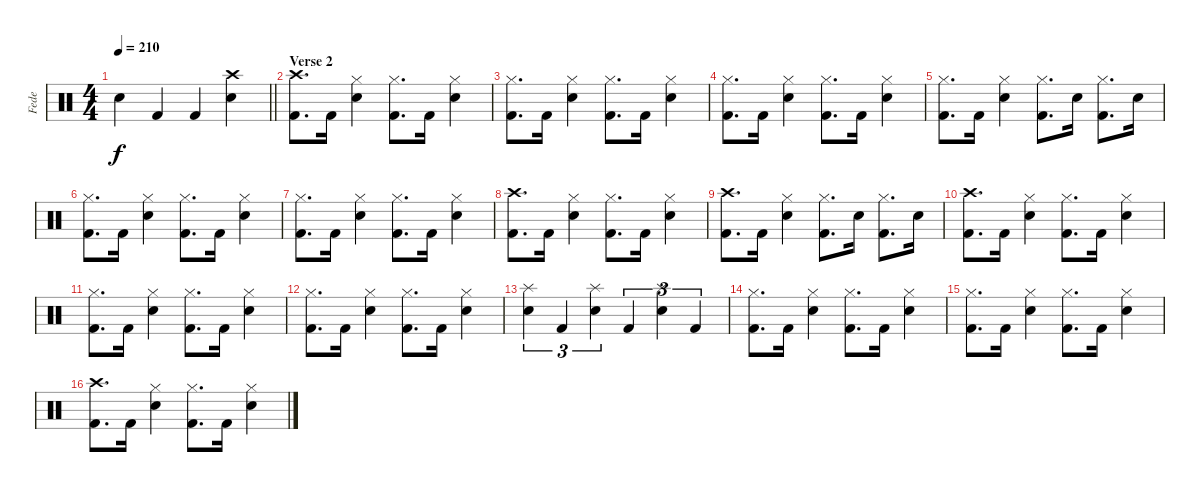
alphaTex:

\track ("Fede" "Fede") {instrument percussion}
\staff {score}
\articulation defaults
\ts (4 4)
\tempo 210
\clef neutral
\barLineRight lightlight
\ks c "Snare (hit) 2".4{dy f} "Kick (hit) 2".4 "Kick (hit) 2".4
("Crash high (hit)" "Snare (hit) 2").4 |
\section ("" "Verse 2")
("Crash high (hit)" "Kick (hit) 2").8{d} "Kick (hit) 2".16 ("Hi-Hat (closed)" "Snare (hit) 2").4 ("Hi-Hat (closed)" "Kick (hit) 2").8{d} "Kick (hit) 2".16 ("Hi-Hat (closed)" "Snare (hit) 2").4 |
("Hi-Hat (closed)" "Kick (hit) 2").8{d} "Kick (hit) 2".16 ("Hi-Hat (closed)" "Snare (hit) 2").4 ("Hi-Hat (closed)" "Kick (hit) 2").8{d} "Kick (hit) 2".16 ("Hi-Hat (closed)" "Snare (hit) 2").4 |
("Hi-Hat (closed)" "Kick (hit) 2").8{d} "Kick (hit) 2".16 ("Hi-Hat (closed)" "Snare (hit) 2").4 ("Hi-Hat (closed)" "Kick (hit) 2").8{d} "Kick (hit) 2".16 ("Hi-Hat (closed)" "Snare (hit) 2").4 |
("Hi-Hat (closed)" "Kick (hit) 2").8{d} "Kick (hit) 2".16 ("Hi-Hat (closed)" "Snare (hit) 2").4 ("Hi-Hat (closed)" "Kick (hit) 2").8{d} "Snare (hit) 2".16 ("Hi-Hat (closed)" "Kick (hit) 2").8{d} "Snare (hit) 2".16 |
("Hi-Hat (closed)" "Kick (hit) 2").8{d} "Kick (hit) 2".16 ("Hi-Hat (closed)" "Snare (hit) 2").4 ("Hi-Hat (closed)" "Kick (hit) 2").8{d} "Kick (hit) 2".16 ("Hi-Hat (closed)" "Snare (hit) 2").4 |
("Hi-Hat (closed)" "Kick (hit) 2").8{d} "Kick (hit) 2".16 ("Hi-Hat (closed)" "Snare (hit) 2").4 ("Hi-Hat (closed)" "Kick (hit) 2").8{d} "Kick (hit) 2".16 ("Hi-Hat (closed)" "Snare (hit) 2").4 |
("Crash high (hit)" "Kick (hit) 2").8{d} "Kick (hit) 2".16 ("Hi-Hat (closed)" "Snare (hit) 2").4 ("Hi-Hat (closed)" "Kick (hit) 2").8{d} "Kick (hit) 2".16 ("Hi-Hat (closed)" "Snare (hit) 2").4 |
("Crash high (hit)" "Kick (hit) 2").8{d} "Kick (hit) 2".16 ("Hi-Hat (closed)" "Snare (hit) 2").4 ("Hi-Hat (closed)" "Kick (hit) 2").8{d} "Snare (hit) 2".16 ("Hi-Hat (closed)" "Kick (hit) 2").8{d} "Snare (hit) 2".16 |
("Crash high (hit)" "Kick (hit) 2").8{d} "Kick (hit) 2".16 ("Hi-Hat (closed)" "Snare (hit) 2").4 ("Hi-Hat (closed)" "Kick (hit) 2").8{d} "Kick (hit) 2".16 ("Hi-Hat (closed)" "Snare (hit) 2").4 |
("Hi-Hat (closed)" "Kick (hit) 2").8{d} "Kick (hit) 2".16 ("Hi-Hat (closed)" "Snare (hit) 2").4 ("Hi-Hat (closed)" "Kick (hit) 2").8{d} "Kick (hit) 2".16 ("Hi-Hat (closed)" "Snare (hit) 2").4 |
("Hi-Hat (closed)" "Kick (hit) 2").8{d} "Kick (hit) 2".16 ("Hi-Hat (closed)" "Snare (hit) 2").4 ("Hi-Hat (closed)" "Kick (hit) 2").8{d} "Kick (hit) 2".16 ("Hi-Hat (closed)" "Snare (hit) 2").4 |
("Splash (hit)" "Snare (hit) 2").4{tu (3 2)} "Kick (hit) 2".4{tu (3 2)} ("Splash (hit)" "Snare (hit) 2").4{tu (3 2)} "Kick (hit) 2".4{tu (3 2)} ("Splash (hit)" "Snare (hit) 2").4{tu (3 2)} "Kick (hit) 2".4{tu (3 2)} |
("Hi-Hat (closed)" "Kick (hit) 2").8{d} "Kick (hit) 2".16 ("Hi-Hat (closed)" "Snare (hit) 2").4 ("Hi-Hat (closed)" "Kick (hit) 2").8{d} "Kick (hit) 2".16 ("Hi-Hat (closed)" "Snare (hit) 2").4 |
("Hi-Hat (closed)" "Kick (hit) 2").8{d} "Kick (hit) 2".16 ("Hi-Hat (closed)" "Snare (hit) 2").4 ("Hi-Hat (closed)" "Kick (hit) 2").8{d} "Kick (hit) 2".16 ("Hi-Hat (closed)" "Snare (hit) 2").4 |
("Crash high (hit)" "Kick (hit) 2").8{d} "Kick (hit) 2".16 ("Hi-Hat (closed)" "Snare (hit) 2").4 ("Hi-Hat (closed)" "Kick (hit) 2").8{d} "Kick (hit) 2".16 ("Hi-Hat (closed)" "Snare (hit) 2").4
